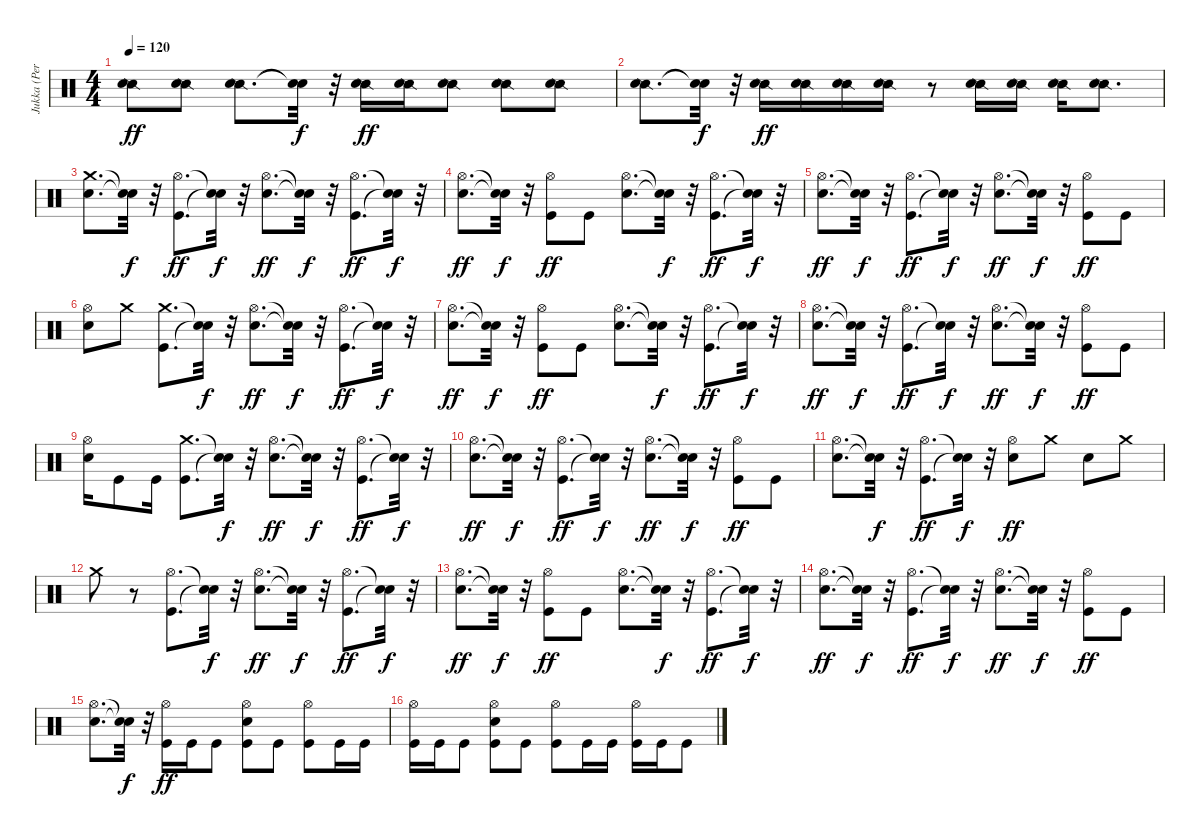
\track ("Jukka (Percussion)" "Jukka (Per") {instrument percussion}
\staff {score}
\articulation defaults
\ts (4 4)
\tempo 120
\clef neutral
\ks c
("Snare (side stick) 2" "Electric Snare (hit)").8{dy ff} ("Snare (side stick) 2" "Electric Snare (hit)").8 ("Snare (side stick) 2" "Electric Snare (hit)").8{d} ("Snare (hit)"{t} "Snare (hit)"{t}).32{dy f} r.32 ("Snare (side stick) 2" "Electric Snare (hit)").16{dy ff} ("Snare (side stick) 2" "Electric Snare (hit)").16 ("Snare (side stick) 2" "Electric Snare (hit)").8 ("Snare (side stick) 2" "Electric Snare (hit)").8 ("Snare (side stick) 2" "Electric Snare (hit)").8 |
("Snare (side stick) 2" "Electric Snare (hit)").8{d} ("Snare (hit)"{t} "Snare (hit)"{t}).32{dy f} r.32 ("Snare (side stick) 2" "Electric Snare (hit)").16{dy ff} ("Snare (side stick) 2" "Electric Snare (hit)").16 ("Snare (side stick) 2" "Electric Snare (hit)").16 ("Snare (side stick) 2" "Electric Snare (hit)").16 r.8 ("Snare (side stick) 2" "Electric Snare (hit)").16 ("Snare (side stick) 2" "Electric Snare (hit)").16 ("Snare (side stick) 2" "Electric Snare (hit)").16 ("Snare (side stick) 2" "Electric Snare (hit)").8{d} |
("Electric Snare (hit)" "Crash medium (hit)").8{d} ("Snare (hit)"{t} "Snare (hit)"{t}).32{dy f} r.32 ("Kick (hit)" "Hi-Hat (open)").8{d dy ff} ("Snare (hit)"{t} "Snare (hit)"{t}).32{dy f} r.32 ("Electric Snare (hit)" "Hi-Hat (open)").8{d dy ff} ("Snare (hit)"{t} "Snare (hit)"{t}).32{dy f} r.32 ("Kick (hit)" "Hi-Hat (open)").8{d dy ff} ("Snare (hit)"{t} "Snare (hit)"{t}).32{dy f} r.32 |
("Electric Snare (hit)" "Hi-Hat (open)").8{d dy ff} ("Snare (hit)"{t} "Snare (hit)"{t}).32{dy f} r.32 ("Kick (hit)" "Hi-Hat (open)").8{dy ff} "Kick (hit)".8 ("Electric Snare (hit)" "Hi-Hat (open)").8{d} ("Snare (hit)"{t} "Snare (hit)"{t}).32{dy f} r.32 ("Kick (hit)" "Hi-Hat (open)").8{d dy ff} ("Snare (hit)"{t} "Snare (hit)"{t}).32{dy f} r.32 |
("Electric Snare (hit)" "Hi-Hat (open)").8{d dy ff} ("Snare (hit)"{t} "Snare (hit)"{t}).32{dy f} r.32 ("Kick (hit)" "Hi-Hat (open)").8{d dy ff} ("Snare (hit)"{t} "Snare (hit)"{t}).32{dy f} r.32 ("Electric Snare (hit)" "Hi-Hat (open)").8{d dy ff} ("Snare (hit)"{t} "Snare (hit)"{t}).32{dy f} r.32 ("Kick (hit)" "Hi-Hat (open)").8{dy ff} "Kick (hit)".8 |
("Electric Snare (hit)" "Hi-Hat (open)").8 "Crash medium (hit)".8 ("Kick (hit)" "Crash medium (hit)").8{d} ("Snare (hit)"{t} "Snare (hit)"{t}).32{dy f} r.32 ("Electric Snare (hit)" "Hi-Hat (open)").8{d dy ff} ("Snare (hit)"{t} "Snare (hit)"{t}).32{dy f} r.32 ("Kick (hit)" "Hi-Hat (open)").8{d dy ff} ("Snare (hit)"{t} "Snare (hit)"{t}).32{dy f} r.32 |
("Electric Snare (hit)" "Hi-Hat (open)").8{d dy ff} ("Snare (hit)"{t} "Snare (hit)"{t}).32{dy f} r.32 ("Kick (hit)" "Hi-Hat (open)").8{dy ff} "Kick (hit)".8 ("Electric Snare (hit)" "Hi-Hat (open)").8{d} ("Snare (hit)"{t} "Snare (hit)"{t}).32{dy f} r.32 ("Kick (hit)" "Hi-Hat (open)").8{d dy ff} ("Snare (hit)"{t} "Snare (hit)"{t}).32{dy f} r.32 |
("Electric Snare (hit)" "Hi-Hat (open)").8{d dy ff} ("Snare (hit)"{t} "Snare (hit)"{t}).32{dy f} r.32 ("Kick (hit)" "Hi-Hat (open)").8{d dy ff} ("Snare (hit)"{t} "Snare (hit)"{t}).32{dy f} r.32 ("Electric Snare (hit)" "Hi-Hat (open)").8{d dy ff} ("Snare (hit)"{t} "Snare (hit)"{t}).32{dy f} r.32 ("Kick (hit)" "Hi-Hat (open)").8{dy ff} "Kick (hit)".8 |
("Electric Snare (hit)" "Hi-Hat (open)").16 "Kick (hit)".8 "Kick (hit)".16 ("Kick (hit)" "Crash medium (hit)").8{d} ("Snare (hit)"{t} "Snare (hit)"{t}).32{dy f} r.32 ("Electric Snare (hit)" "Hi-Hat (open)").8{d dy ff} ("Snare (hit)"{t} "Snare (hit)"{t}).32{dy f} r.32 ("Kick (hit)" "Hi-Hat (open)").8{d dy ff} ("Snare (hit)"{t} "Snare (hit)"{t}).32{dy f} r.32 |
("Electric Snare (hit)" "Hi-Hat (open)").8{d dy ff} ("Snare (hit)"{t} "Snare (hit)"{t}).32{dy f} r.32 ("Kick (hit)" "Hi-Hat (open)").8{d dy ff} ("Snare (hit)"{t} "Snare (hit)"{t}).32{dy f} r.32 ("Electric Snare (hit)" "Hi-Hat (open)").8{d dy ff} ("Snare (hit)"{t} "Snare (hit)"{t}).32{dy f} r.32 ("Kick (hit)" "Hi-Hat (open)").8{dy ff} "Kick (hit)".8 |
("Electric Snare (hit)" "Hi-Hat (open)").8{d} ("Snare (hit)"{t} "Snare (hit)"{t}).32{dy f} r.32 ("Kick (hit)" "Hi-Hat (open)").8{d dy ff} ("Snare (hit)"{t} "Snare (hit)"{t}).32{dy f} r.32 ("Electric Snare (hit)" "Hi-Hat (open)").8{dy ff} "Crash medium (hit)".8 "Electric Snare (hit)".8 "Crash medium (hit)".8 |
"Crash medium (hit)".8 r.8 ("Kick (hit)" "Hi-Hat (open)").8{d} ("Snare (hit)"{t} "Snare (hit)"{t}).32{dy f} r.32 ("Electric Snare (hit)" "Hi-Hat (open)").8{d dy ff} ("Snare (hit)"{t} "Snare (hit)"{t}).32{dy f} r.32 ("Kick (hit)" "Hi-Hat (open)").8{d dy ff} ("Snare (hit)"{t} "Snare (hit)"{t}).32{dy f} r.32 |
("Electric Snare (hit)" "Hi-Hat (open)").8{d dy ff} ("Snare (hit)"{t} "Snare (hit)"{t}).32{dy f} r.32 ("Kick (hit)" "Hi-Hat (open)").8{dy ff} "Kick (hit)".8 ("Electric Snare (hit)" "Hi-Hat (open)").8{d} ("Snare (hit)"{t} "Snare (hit)"{t}).32{dy f} r.32 ("Kick (hit)" "Hi-Hat (open)").8{d dy ff} ("Snare (hit)"{t} "Snare (hit)"{t}).32{dy f} r.32 |
("Electric Snare (hit)" "Hi-Hat (open)").8{d dy ff} ("Snare (hit)"{t} "Snare (hit)"{t}).32{dy f} r.32 ("Kick (hit)" "Hi-Hat (open)").8{d dy ff} ("Snare (hit)"{t} "Snare (hit)"{t}).32{dy f} r.32 ("Electric Snare (hit)" "Hi-Hat (open)").8{d dy ff} ("Snare (hit)"{t} "Snare (hit)"{t}).32{dy f} r.32 ("Kick (hit)" "Hi-Hat (open)").8{dy ff} "Kick (hit)".8 |
("Electric Snare (hit)" "Hi-Hat (open)").8{d} ("Snare (hit)"{t} "Snare (hit)"{t}).32{dy f} r.32 ("Kick (hit)" "Hi-Hat (open)").16{dy ff} "Kick (hit)".16 "Kick (hit)".8 ("Kick (hit)" "Electric Snare (hit)" "Hi-Hat (open)").8 "Kick (hit)".8 ("Kick (hit)" "Hi-Hat (open)").8 "Kick (hit)".16 "Kick (hit)".16 |
("Kick (hit)" "Hi-Hat (open)").16 "Kick (hit)".16 "Kick (hit)".8 ("Kick (hit)" "Electric Snare (hit)" "Hi-Hat (open)").8 "Kick (hit)".8 ("Kick (hit)" "Hi-Hat (open)").8 "Kick (hit)".16 "Kick (hit)".16 ("Kick (hit)" "Hi-Hat (open)").16 "Kick (hit)".16 "Kick (hit)".8
